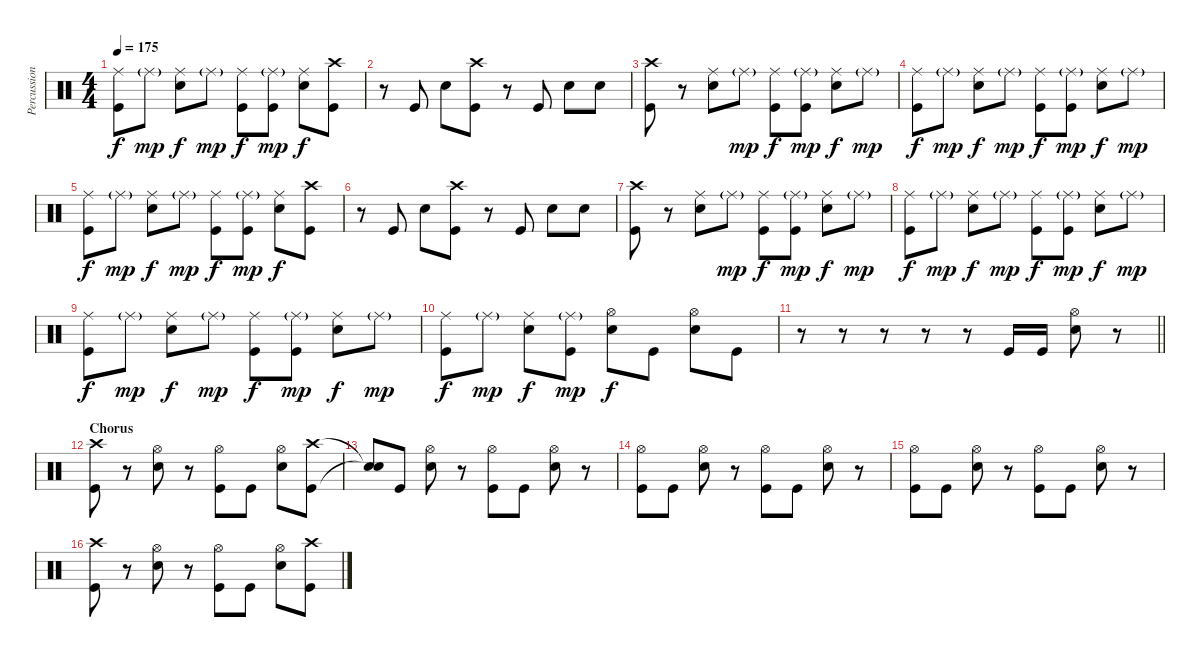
\track ("Percussion" "Percussion") {instrument percussion}
\staff {score}
\articulation defaults
\ts (4 4)
\tempo 175
\clef neutral
\ks c
("Ride (middle)" "Kick (hit)").8{dy f} "Ride (middle)"{g}.8{dy mp} ("Ride (middle)" "Snare (hit) 2").8{dy f} "Ride (middle)"{g}.8{dy mp} ("Ride (middle)" "Kick (hit)").8{dy f} ("Ride (middle)"{g} "Kick (hit)").8{dy mp} ("Ride (middle)" "Snare (hit) 2").8{dy f} ("Crash high (hit)" "Kick (hit)").8 |
r.8 "Kick (hit)".8 "Snare (hit) 2".8 ("Crash high (hit)" "Kick (hit)").8 r.8 "Kick (hit)".8 "Snare (hit) 2".8 "Snare (hit) 2".8 |
("Crash high (hit)" "Kick (hit)").8 r.8 ("Ride (middle)" "Snare (hit) 2").8 "Ride (middle)"{g}.8{dy mp} ("Ride (middle)" "Kick (hit)").8{dy f} ("Ride (middle)"{g} "Kick (hit)").8{dy mp} ("Ride (middle)" "Snare (hit) 2").8{dy f} "Ride (middle)"{g}.8{dy mp} |
("Ride (middle)" "Kick (hit)").8{dy f} "Ride (middle)"{g}.8{dy mp} ("Ride (middle)" "Snare (hit) 2").8{dy f} "Ride (middle)"{g}.8{dy mp} ("Ride (middle)" "Kick (hit)").8{dy f} ("Ride (middle)"{g} "Kick (hit)").8{dy mp} ("Ride (middle)" "Snare (hit) 2").8{dy f} "Ride (middle)"{g}.8{dy mp} |
("Ride (middle)" "Kick (hit)").8{dy f} "Ride (middle)"{g}.8{dy mp} ("Ride (middle)" "Snare (hit) 2").8{dy f} "Ride (middle)"{g}.8{dy mp} ("Ride (middle)" "Kick (hit)").8{dy f} ("Ride (middle)"{g} "Kick (hit)").8{dy mp} ("Ride (middle)" "Snare (hit) 2").8{dy f} ("Crash high (hit)" "Kick (hit)").8 |
r.8 "Kick (hit)".8 "Snare (hit) 2".8 ("Crash high (hit)" "Kick (hit)").8 r.8 "Kick (hit)".8 "Snare (hit) 2".8 "Snare (hit) 2".8 |
("Crash high (hit)" "Kick (hit)").8 r.8 ("Ride (middle)" "Snare (hit) 2").8 "Ride (middle)"{g}.8{dy mp} ("Ride (middle)" "Kick (hit)").8{dy f} ("Ride (middle)"{g} "Kick (hit)").8{dy mp} ("Ride (middle)" "Snare (hit) 2").8{dy f} "Ride (middle)"{g}.8{dy mp} |
("Ride (middle)" "Kick (hit)").8{dy f} "Ride (middle)"{g}.8{dy mp} ("Ride (middle)" "Snare (hit) 2").8{dy f} "Ride (middle)"{g}.8{dy mp} ("Ride (middle)" "Kick (hit)").8{dy f} ("Ride (middle)"{g} "Kick (hit)").8{dy mp} ("Ride (middle)" "Snare (hit) 2").8{dy f} "Ride (middle)"{g}.8{dy mp} |
("Ride (middle)" "Kick (hit)").8{dy f} "Ride (middle)"{g}.8{dy mp} ("Ride (middle)" "Snare (hit) 2").8{dy f} "Ride (middle)"{g}.8{dy mp} ("Ride (middle)" "Kick (hit)").8{dy f} ("Ride (middle)"{g} "Kick (hit)").8{dy mp} ("Ride (middle)" "Snare (hit) 2").8{dy f} "Ride (middle)"{g}.8{dy mp} |
("Ride (middle)" "Kick (hit)").8{dy f} "Ride (middle)"{g}.8{dy mp} ("Ride (middle)" "Snare (hit) 2").8{dy f} ("Ride (middle)"{g} "Kick (hit)").8{dy mp} ("Hi-Hat (open)" "Snare (hit) 2").8{dy f} "Kick (hit)".8 ("Hi-Hat (open)" "Snare (hit) 2").8 "Kick (hit)".8 |
\barLineRight lightlight
r.8 r.8 r.8 r.8 r.8 "Kick (hit)".16 "Kick (hit)".16 ("Hi-Hat (open)" "Snare (hit) 2").8 r.8 |
\section ("" "Chorus")
("Crash high (hit)" "Kick (hit)").8 r.8 ("Hi-Hat (open)" "Snare (hit) 2").8 r.8 ("Hi-Hat (open)" "Kick (hit)").8 "Kick (hit)".8 ("Hi-Hat (open)" "Snare (hit) 2").8 ("Crash high (hit)" "Kick (hit)").8 |
("Snare (hit)"{t} "Snare (hit)"{t}).8 "Kick (hit)".8 ("Hi-Hat (open)" "Snare (hit) 2").8 r.8 ("Hi-Hat (open)" "Kick (hit)").8 "Kick (hit)".8 ("Hi-Hat (open)" "Snare (hit) 2").8 r.8 |
("Hi-Hat (open)" "Kick (hit)").8 "Kick (hit)".8 ("Hi-Hat (open)" "Snare (hit) 2").8 r.8 ("Hi-Hat (open)" "Kick (hit)").8 "Kick (hit)".8 ("Hi-Hat (open)" "Snare (hit) 2").8 r.8 |
("Hi-Hat (open)" "Kick (hit)").8 "Kick (hit)".8 ("Hi-Hat (open)" "Snare (hit) 2").8 r.8 ("Hi-Hat (open)" "Kick (hit)").8 "Kick (hit)".8 ("Hi-Hat (open)" "Snare (hit) 2").8 r.8 |
("Crash high (hit)" "Kick (hit)").8 r.8 ("Hi-Hat (open)" "Snare (hit) 2").8 r.8 ("Hi-Hat (open)" "Kick (hit)").8 "Kick (hit)".8 ("Hi-Hat (open)" "Snare (hit) 2").8 ("Crash high (hit)" "Kick (hit)").8
